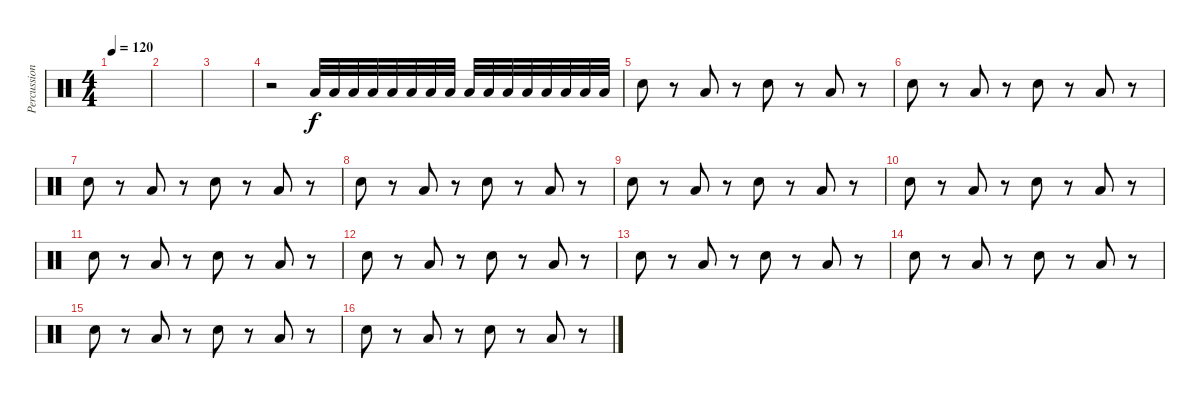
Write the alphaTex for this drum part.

\track ("Percussion" "Percussion") {instrument percussion}
\staff {score}
\articulation defaults
\ts (4 4)
\tempo 120
\clef neutral
\ks c
|
|
|
r.2 "Low Tom (hit)".32 "Low Tom (hit)".32 "Low Tom (hit)".32 "Low Tom (hit)".32 "Low Tom (hit)".32 "Low Tom (hit)".32 "Low Tom (hit)".32 "Low Tom (hit)".32 "Low Tom (hit)".32 "Low Tom (hit)".32 "Low Tom (hit)".32 "Low Tom (hit)".32 "Low Tom (hit)".32 "Low Tom (hit)".32 "Low Tom (hit)".32 "Low Tom (hit)".32 |
"Electric Snare (hit)".8 r.8 "Low Floor Tom (hit)".8 r.8 "Electric Snare (hit)".8 r.8 "Low Floor Tom (hit)".8 r.8 |
"Electric Snare (hit)".8 r.8 "Low Floor Tom (hit)".8 r.8 "Electric Snare (hit)".8 r.8 "Low Floor Tom (hit)".8 r.8 |
"Electric Snare (hit)".8 r.8 "Low Floor Tom (hit)".8 r.8 "Electric Snare (hit)".8 r.8 "Low Floor Tom (hit)".8 r.8 |
"Electric Snare (hit)".8 r.8 "Low Floor Tom (hit)".8 r.8 "Electric Snare (hit)".8 r.8 "Low Floor Tom (hit)".8 r.8 |
"Electric Snare (hit)".8 r.8 "Low Floor Tom (hit)".8 r.8 "Electric Snare (hit)".8 r.8 "Low Floor Tom (hit)".8 r.8 |
"Electric Snare (hit)".8 r.8 "Low Floor Tom (hit)".8 r.8 "Electric Snare (hit)".8 r.8 "Low Floor Tom (hit)".8 r.8 |
"Electric Snare (hit)".8 r.8 "Low Floor Tom (hit)".8 r.8 "Electric Snare (hit)".8 r.8 "Low Floor Tom (hit)".8 r.8 |
"Electric Snare (hit)".8 r.8 "Low Floor Tom (hit)".8 r.8 "Electric Snare (hit)".8 r.8 "Low Floor Tom (hit)".8 r.8 |
"Electric Snare (hit)".8 r.8 "Low Floor Tom (hit)".8 r.8 "Electric Snare (hit)".8 r.8 "Low Floor Tom (hit)".8 r.8 |
"Electric Snare (hit)".8 r.8 "Low Floor Tom (hit)".8 r.8 "Electric Snare (hit)".8 r.8 "Low Floor Tom (hit)".8 r.8 |
"Electric Snare (hit)".8 r.8 "Low Floor Tom (hit)".8 r.8 "Electric Snare (hit)".8 r.8 "Low Floor Tom (hit)".8 r.8 |
"Electric Snare (hit)".8 r.8 "Low Floor Tom (hit)".8 r.8 "Electric Snare (hit)".8 r.8 "Low Floor Tom (hit)".8 r.8
